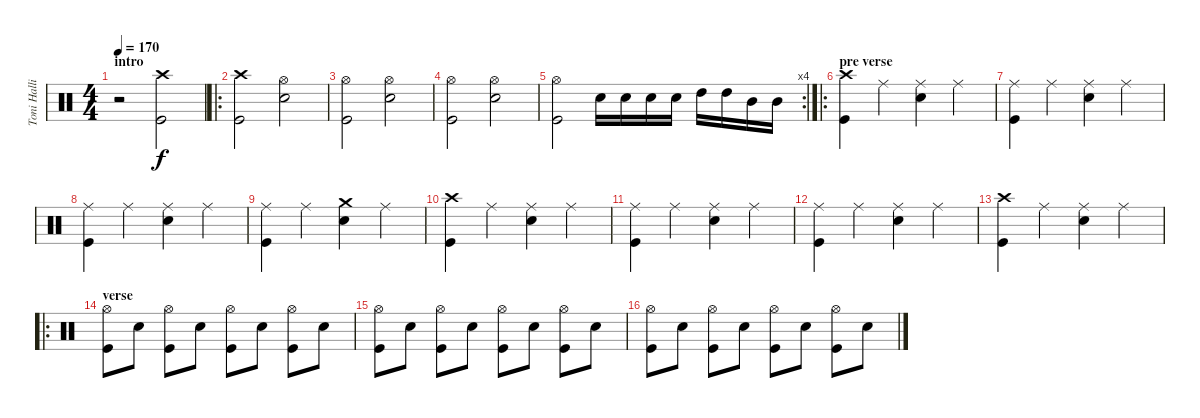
\track ("Toni Hallio" "Toni Halli") {instrument percussion}
\staff {score}
\articulation defaults
\ts (4 4)
\section ("" "intro")
\tempo 170
\clef neutral
\ks c
r.2{dy f} ("Crash high (hit)" "Kick (hit)").2 |
\ro
("Crash high (hit)" "Kick (hit)").2 ("Hi-Hat (open)" "Snare (hit) 2").2 |
("Hi-Hat (open)" "Kick (hit)").2 ("Hi-Hat (open)" "Snare (hit) 2").2 |
("Hi-Hat (open)" "Kick (hit)").2 ("Hi-Hat (open)" "Snare (hit) 2").2 |
\rc 4
("Hi-Hat (open)" "Kick (hit)").2 "Snare (hit) 2".16 "Snare (hit) 2".16 "Snare (hit) 2".16 "Snare (hit) 2".16 "High Tom (hit)".16 "High Tom (hit)".16 "Mid Tom (hit)".16 "Mid Tom (hit)".16 |
\ro
\section ("" "pre verse")
("Crash high (hit)" "Kick (hit)").4 "Ride (middle)".4 ("Ride (middle)" "Snare (hit) 2").4 "Ride (middle)".4 |
("Ride (middle)" "Kick (hit)").4 "Ride (middle)".4 ("Ride (middle)" "Snare (hit) 2").4 "Ride (middle)".4 |
("Ride (middle)" "Kick (hit)").4 "Ride (middle)".4 ("Ride (middle)" "Snare (hit) 2").4 "Ride (middle)".4 |
("Ride (middle)" "Kick (hit)").4 "Ride (middle)".4 ("Crash medium (hit)" "Snare (hit) 2").4 "Ride (middle)".4 |
("Crash high (hit)" "Kick (hit)").4 "Ride (middle)".4 ("Ride (middle)" "Snare (hit) 2").4 "Ride (middle)".4 |
("Ride (middle)" "Kick (hit)").4 "Ride (middle)".4 ("Ride (middle)" "Snare (hit) 2").4 "Ride (middle)".4 |
("Ride (middle)" "Kick (hit)").4 "Ride (middle)".4 ("Ride (middle)" "Snare (hit) 2").4 "Ride (middle)".4 |
("Crash high (hit)" "Kick (hit)").4 "Ride (middle)".4 ("Ride (middle)" "Snare (hit) 2").4 "Ride (middle)".4 |
\ro
\section ("" "verse")
("Hi-Hat (open)" "Kick (hit)").8 "Snare (hit) 2".8 ("Hi-Hat (open)" "Kick (hit)").8 "Snare (hit) 2".8 ("Hi-Hat (open)" "Kick (hit)").8 "Snare (hit) 2".8 ("Hi-Hat (open)" "Kick (hit)").8 "Snare (hit) 2".8 |
("Hi-Hat (open)" "Kick (hit)").8 "Snare (hit) 2".8 ("Hi-Hat (open)" "Kick (hit)").8 "Snare (hit) 2".8 ("Hi-Hat (open)" "Kick (hit)").8 "Snare (hit) 2".8 ("Hi-Hat (open)" "Kick (hit)").8 "Snare (hit) 2".8 |
("Hi-Hat (open)" "Kick (hit)").8 "Snare (hit) 2".8 ("Hi-Hat (open)" "Kick (hit)").8 "Snare (hit) 2".8 ("Hi-Hat (open)" "Kick (hit)").8 "Snare (hit) 2".8 ("Hi-Hat (open)" "Kick (hit)").8 "Snare (hit) 2".8
